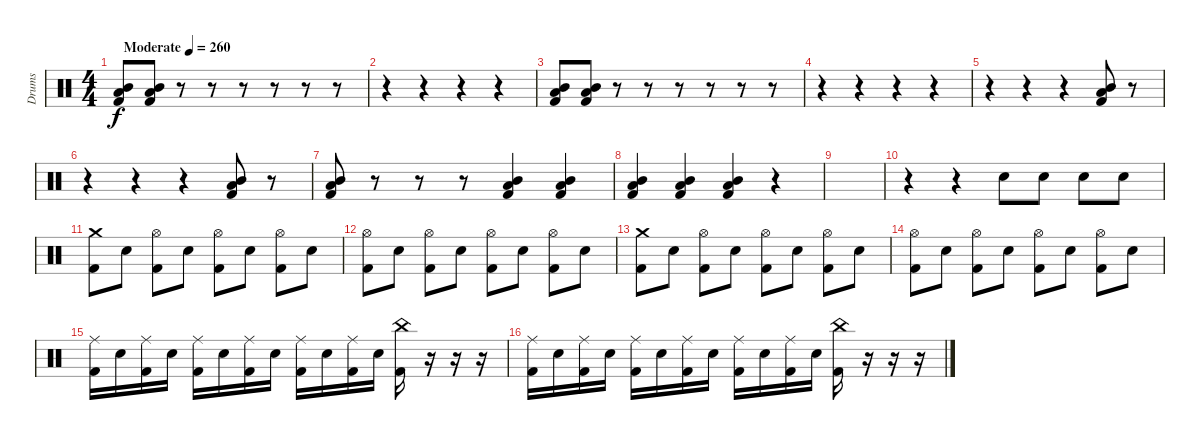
\track ("Drums" "Drums") {instrument percussion}
\staff {score}
\articulation defaults
\ts (4 4)
\tempo (260 "Moderate")
\clef neutral
\ks c
("Low Tom (hit)" "Mid Tom (hit)" "Kick (hit) 2").8{dy f} ("Low Tom (hit)" "Mid Tom (hit)" "Kick (hit) 2").8 r.8 r.8 r.8 r.8 r.8 r.8 |
r.4 r.4 r.4 r.4 |
("Low Tom (hit)" "Mid Tom (hit)" "Kick (hit) 2").8 ("Low Tom (hit)" "Mid Tom (hit)" "Kick (hit) 2").8 r.8 r.8 r.8 r.8 r.8 r.8 |
r.4 r.4 r.4 r.4 |
r.4 r.4 r.4 ("Low Tom (hit)" "Mid Tom (hit)" "Kick (hit) 2").8 r.8 |
r.4 r.4 r.4 ("Low Tom (hit)" "Mid Tom (hit)" "Kick (hit) 2").8 r.8 |
("Low Tom (hit)" "Mid Tom (hit)" "Kick (hit) 2").8 r.8 r.8 r.8 ("Low Tom (hit)" "Mid Tom (hit)" "Kick (hit) 2").4 ("Low Tom (hit)" "Mid Tom (hit)" "Kick (hit) 2").4 |
("Low Tom (hit)" "Mid Tom (hit)" "Kick (hit) 2").4 ("Low Tom (hit)" "Mid Tom (hit)" "Kick (hit) 2").4 ("Low Tom (hit)" "Mid Tom (hit)" "Kick (hit) 2").4 r.4 |
|
r.4 r.4 "Electric Snare (hit)".8 "Electric Snare (hit)".8 "Electric Snare (hit)".8 "Electric Snare (hit)".8 |
("Crash medium (hit)" "Kick (hit) 2").8 "Electric Snare (hit)".8 ("Hi-Hat (open)" "Kick (hit) 2").8 "Electric Snare (hit)".8 ("Hi-Hat (open)" "Kick (hit) 2").8 "Electric Snare (hit)".8 ("Hi-Hat (open)" "Kick (hit) 2").8 "Electric Snare (hit)".8 |
("Hi-Hat (open)" "Kick (hit) 2").8 "Electric Snare (hit)".8 ("Hi-Hat (open)" "Kick (hit) 2").8 "Electric Snare (hit)".8 ("Hi-Hat (open)" "Kick (hit) 2").8 "Electric Snare (hit)".8 ("Hi-Hat (open)" "Kick (hit) 2").8 "Electric Snare (hit)".8 |
("Crash medium (hit)" "Kick (hit) 2").8 "Electric Snare (hit)".8 ("Hi-Hat (open)" "Kick (hit) 2").8 "Electric Snare (hit)".8 ("Hi-Hat (open)" "Kick (hit) 2").8 "Electric Snare (hit)".8 ("Hi-Hat (open)" "Kick (hit) 2").8 "Electric Snare (hit)".8 |
("Hi-Hat (open)" "Kick (hit) 2").8 "Electric Snare (hit)".8 ("Hi-Hat (open)" "Kick (hit) 2").8 "Electric Snare (hit)".8 ("Hi-Hat (open)" "Kick (hit) 2").8 "Electric Snare (hit)".8 ("Hi-Hat (open)" "Kick (hit) 2").8 "Electric Snare (hit)".8 |
("Ride (middle)" "Kick (hit) 2").16 "Electric Snare (hit)".16 ("Ride (middle)" "Kick (hit) 2").16 "Electric Snare (hit)".16 ("Ride (middle)" "Kick (hit) 2").16 "Electric Snare (hit)".16 ("Ride (middle)" "Kick (hit) 2").16 "Electric Snare (hit)".16 ("Ride (middle)" "Kick (hit) 2").16 "Electric Snare (hit)".16 ("Ride (middle)" "Kick (hit) 2").16 "Electric Snare (hit)".16 ("China (hit)" "Kick (hit) 2").16 r.16 r.16 r.16 |
("Ride (middle)" "Kick (hit) 2").16 "Electric Snare (hit)".16 ("Ride (middle)" "Kick (hit) 2").16 "Electric Snare (hit)".16 ("Ride (middle)" "Kick (hit) 2").16 "Electric Snare (hit)".16 ("Ride (middle)" "Kick (hit) 2").16 "Electric Snare (hit)".16 ("Ride (middle)" "Kick (hit) 2").16 "Electric Snare (hit)".16 ("Ride (middle)" "Kick (hit) 2").16 "Electric Snare (hit)".16 ("China (hit)" "Kick (hit) 2").16 r.16 r.16 r.16
